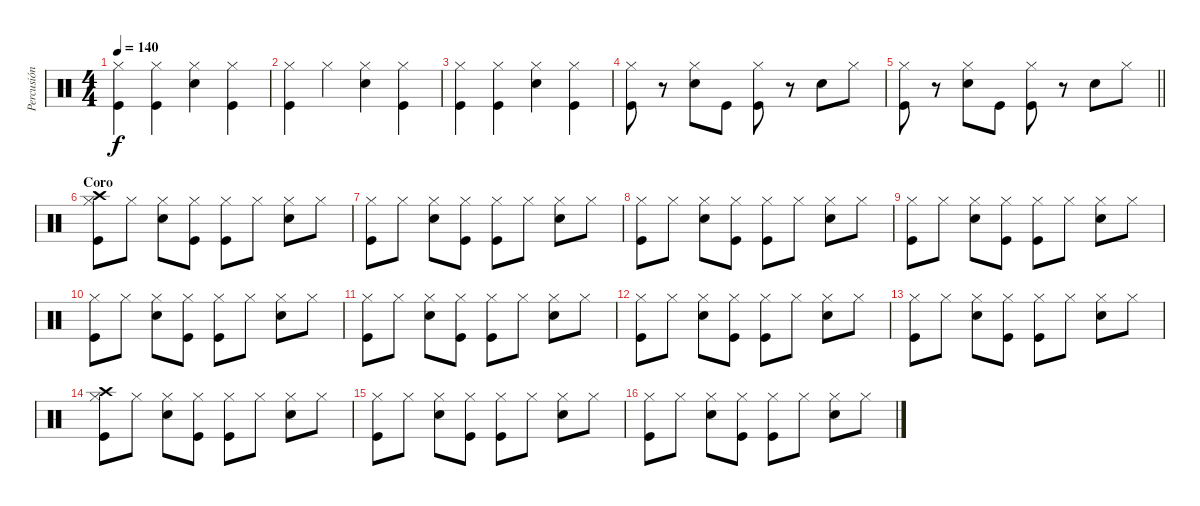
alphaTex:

\track ("Percusión" "Percusión") {instrument percussion}
\staff {score}
\articulation defaults
\ts (4 4)
\tempo 140
\clef neutral
\ks c
("Kick (hit)" "Hi-Hat (closed)").4{dy f} ("Kick (hit)" "Hi-Hat (closed)").4 ("Snare (hit) 2" "Hi-Hat (closed)").4 ("Kick (hit)" "Hi-Hat (closed)").4 |
("Kick (hit)" "Hi-Hat (closed)").4 "Hi-Hat (closed)".4 ("Snare (hit) 2" "Hi-Hat (closed)").4 ("Kick (hit)" "Hi-Hat (closed)").4 |
("Kick (hit)" "Hi-Hat (closed)").4 ("Kick (hit)" "Hi-Hat (closed)").4 ("Snare (hit) 2" "Hi-Hat (closed)").4 ("Kick (hit)" "Hi-Hat (closed)").4 |
("Hi-Hat (closed)" "Kick (hit)").8 r.8 ("Snare (hit) 2" "Hi-Hat (closed)").8 "Kick (hit)".8 ("Kick (hit)" "Hi-Hat (closed)").8 r.8 "Snare (hit) 2".8 "Hi-Hat (closed)".8 |
\barLineRight lightlight
("Hi-Hat (closed)" "Kick (hit)").8 r.8 ("Snare (hit) 2" "Hi-Hat (closed)").8 "Kick (hit)".8 ("Kick (hit)" "Hi-Hat (closed)").8 r.8 "Snare (hit) 2".8 "Hi-Hat (closed)".8 |
\section ("" "Coro")
("Hi-Hat (closed)" "Crash high (hit)" "Kick (hit)").8 "Hi-Hat (closed)".8 ("Snare (hit) 2" "Hi-Hat (closed)").8 ("Kick (hit)" "Hi-Hat (closed)").8 ("Kick (hit)" "Hi-Hat (closed)").8 "Hi-Hat (closed)".8 ("Snare (hit) 2" "Hi-Hat (closed)").8 "Hi-Hat (closed)".8 |
("Hi-Hat (closed)" "Kick (hit)").8 "Hi-Hat (closed)".8 ("Snare (hit) 2" "Hi-Hat (closed)").8 ("Kick (hit)" "Hi-Hat (closed)").8 ("Kick (hit)" "Hi-Hat (closed)").8 "Hi-Hat (closed)".8 ("Snare (hit) 2" "Hi-Hat (closed)").8 "Hi-Hat (closed)".8 |
("Hi-Hat (closed)" "Kick (hit)").8 "Hi-Hat (closed)".8 ("Snare (hit) 2" "Hi-Hat (closed)").8 ("Kick (hit)" "Hi-Hat (closed)").8 ("Kick (hit)" "Hi-Hat (closed)").8 "Hi-Hat (closed)".8 ("Snare (hit) 2" "Hi-Hat (closed)").8 "Hi-Hat (closed)".8 |
("Hi-Hat (closed)" "Kick (hit)").8 "Hi-Hat (closed)".8 ("Snare (hit) 2" "Hi-Hat (closed)").8 ("Kick (hit)" "Hi-Hat (closed)").8 ("Kick (hit)" "Hi-Hat (closed)").8 "Hi-Hat (closed)".8 ("Snare (hit) 2" "Hi-Hat (closed)").8 "Hi-Hat (closed)".8 |
("Hi-Hat (closed)" "Kick (hit)").8 "Hi-Hat (closed)".8 ("Snare (hit) 2" "Hi-Hat (closed)").8 ("Kick (hit)" "Hi-Hat (closed)").8 ("Kick (hit)" "Hi-Hat (closed)").8 "Hi-Hat (closed)".8 ("Snare (hit) 2" "Hi-Hat (closed)").8 "Hi-Hat (closed)".8 |
("Hi-Hat (closed)" "Kick (hit)").8 "Hi-Hat (closed)".8 ("Snare (hit) 2" "Hi-Hat (closed)").8 ("Kick (hit)" "Hi-Hat (closed)").8 ("Kick (hit)" "Hi-Hat (closed)").8 "Hi-Hat (closed)".8 ("Snare (hit) 2" "Hi-Hat (closed)").8 "Hi-Hat (closed)".8 |
("Hi-Hat (closed)" "Kick (hit)").8 "Hi-Hat (closed)".8 ("Snare (hit) 2" "Hi-Hat (closed)").8 ("Kick (hit)" "Hi-Hat (closed)").8 ("Kick (hit)" "Hi-Hat (closed)").8 "Hi-Hat (closed)".8 ("Snare (hit) 2" "Hi-Hat (closed)").8 "Hi-Hat (closed)".8 |
("Hi-Hat (closed)" "Kick (hit)").8 "Hi-Hat (closed)".8 ("Snare (hit) 2" "Hi-Hat (closed)").8 ("Kick (hit)" "Hi-Hat (closed)").8 ("Kick (hit)" "Hi-Hat (closed)").8 "Hi-Hat (closed)".8 ("Snare (hit) 2" "Hi-Hat (closed)").8 "Hi-Hat (closed)".8 |
("Hi-Hat (closed)" "Crash high (hit)" "Kick (hit)").8 "Hi-Hat (closed)".8 ("Snare (hit) 2" "Hi-Hat (closed)").8 ("Kick (hit)" "Hi-Hat (closed)").8 ("Kick (hit)" "Hi-Hat (closed)").8 "Hi-Hat (closed)".8 ("Snare (hit) 2" "Hi-Hat (closed)").8 "Hi-Hat (closed)".8 |
("Hi-Hat (closed)" "Kick (hit)").8 "Hi-Hat (closed)".8 ("Snare (hit) 2" "Hi-Hat (closed)").8 ("Kick (hit)" "Hi-Hat (closed)").8 ("Kick (hit)" "Hi-Hat (closed)").8 "Hi-Hat (closed)".8 ("Snare (hit) 2" "Hi-Hat (closed)").8 "Hi-Hat (closed)".8 |
("Hi-Hat (closed)" "Kick (hit)").8 "Hi-Hat (closed)".8 ("Snare (hit) 2" "Hi-Hat (closed)").8 ("Kick (hit)" "Hi-Hat (closed)").8 ("Kick (hit)" "Hi-Hat (closed)").8 "Hi-Hat (closed)".8 ("Snare (hit) 2" "Hi-Hat (closed)").8 "Hi-Hat (closed)".8
